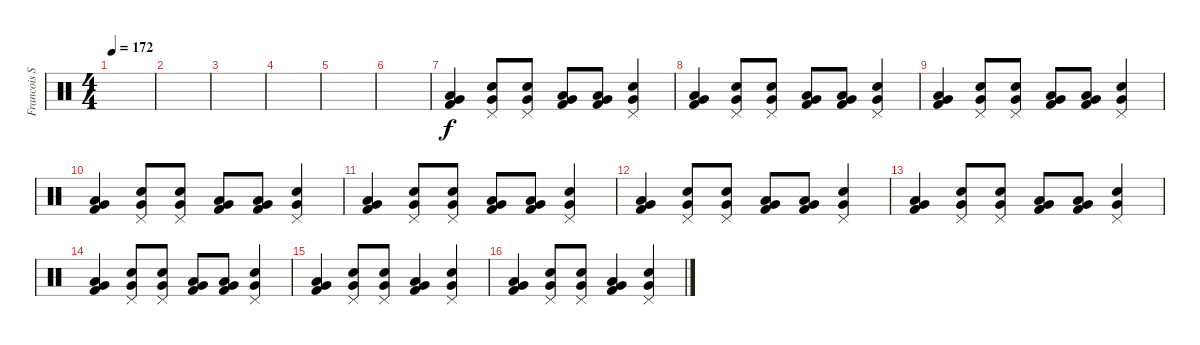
\track ("Francois Soulier" "Francois S") {instrument percussion}
\staff {score}
\articulation defaults
\ts (4 4)
\tempo 172
\clef neutral
\ks c
|
|
|
|
|
|
("Kick (hit) 2" "Very Low Tom (hit)" "Low Floor Tom (hit)").4 ("Very Low Tom (hit)" "Electric Snare (hit)" "Pedal Hi-Hat (hit)").8 ("Very Low Tom (hit)" "Electric Snare (hit)" "Pedal Hi-Hat (hit)").8 ("Kick (hit) 2" "Very Low Tom (hit)" "Low Floor Tom (hit)").8 ("Kick (hit) 2" "Very Low Tom (hit)" "Low Floor Tom (hit)").8 ("Very Low Tom (hit)" "Electric Snare (hit)" "Pedal Hi-Hat (hit)").4 |
("Kick (hit) 2" "Very Low Tom (hit)" "Low Floor Tom (hit)").4 ("Very Low Tom (hit)" "Electric Snare (hit)" "Pedal Hi-Hat (hit)").8 ("Very Low Tom (hit)" "Electric Snare (hit)" "Pedal Hi-Hat (hit)").8 ("Kick (hit) 2" "Very Low Tom (hit)" "Low Floor Tom (hit)").8 ("Kick (hit) 2" "Very Low Tom (hit)" "Low Floor Tom (hit)").8 ("Very Low Tom (hit)" "Electric Snare (hit)" "Pedal Hi-Hat (hit)").4 |
("Kick (hit) 2" "Very Low Tom (hit)" "Low Floor Tom (hit)").4 ("Very Low Tom (hit)" "Electric Snare (hit)" "Pedal Hi-Hat (hit)").8 ("Very Low Tom (hit)" "Electric Snare (hit)" "Pedal Hi-Hat (hit)").8 ("Kick (hit) 2" "Very Low Tom (hit)" "Low Floor Tom (hit)").8 ("Kick (hit) 2" "Very Low Tom (hit)" "Low Floor Tom (hit)").8 ("Very Low Tom (hit)" "Electric Snare (hit)" "Pedal Hi-Hat (hit)").4 |
("Kick (hit) 2" "Very Low Tom (hit)" "Low Floor Tom (hit)").4 ("Very Low Tom (hit)" "Electric Snare (hit)" "Pedal Hi-Hat (hit)").8 ("Very Low Tom (hit)" "Electric Snare (hit)" "Pedal Hi-Hat (hit)").8 ("Kick (hit) 2" "Very Low Tom (hit)" "Low Floor Tom (hit)").8 ("Kick (hit) 2" "Very Low Tom (hit)" "Low Floor Tom (hit)").8 ("Very Low Tom (hit)" "Electric Snare (hit)" "Pedal Hi-Hat (hit)").4 |
("Kick (hit) 2" "Very Low Tom (hit)" "Low Floor Tom (hit)").4 ("Very Low Tom (hit)" "Electric Snare (hit)" "Pedal Hi-Hat (hit)").8 ("Very Low Tom (hit)" "Electric Snare (hit)" "Pedal Hi-Hat (hit)").8 ("Kick (hit) 2" "Very Low Tom (hit)" "Low Floor Tom (hit)").8 ("Kick (hit) 2" "Very Low Tom (hit)" "Low Floor Tom (hit)").8 ("Very Low Tom (hit)" "Electric Snare (hit)" "Pedal Hi-Hat (hit)").4 |
("Kick (hit) 2" "Very Low Tom (hit)" "Low Floor Tom (hit)").4 ("Very Low Tom (hit)" "Electric Snare (hit)" "Pedal Hi-Hat (hit)").8 ("Very Low Tom (hit)" "Electric Snare (hit)" "Pedal Hi-Hat (hit)").8 ("Kick (hit) 2" "Very Low Tom (hit)" "Low Floor Tom (hit)").8 ("Kick (hit) 2" "Very Low Tom (hit)" "Low Floor Tom (hit)").8 ("Very Low Tom (hit)" "Electric Snare (hit)" "Pedal Hi-Hat (hit)").4 |
("Kick (hit) 2" "Very Low Tom (hit)" "Low Floor Tom (hit)").4 ("Very Low Tom (hit)" "Electric Snare (hit)" "Pedal Hi-Hat (hit)").8 ("Very Low Tom (hit)" "Electric Snare (hit)" "Pedal Hi-Hat (hit)").8 ("Kick (hit) 2" "Very Low Tom (hit)" "Low Floor Tom (hit)").8 ("Kick (hit) 2" "Very Low Tom (hit)" "Low Floor Tom (hit)").8 ("Very Low Tom (hit)" "Electric Snare (hit)" "Pedal Hi-Hat (hit)").4 |
("Kick (hit) 2" "Very Low Tom (hit)" "Low Floor Tom (hit)").4 ("Very Low Tom (hit)" "Electric Snare (hit)" "Pedal Hi-Hat (hit)").8 ("Very Low Tom (hit)" "Electric Snare (hit)" "Pedal Hi-Hat (hit)").8 ("Kick (hit) 2" "Very Low Tom (hit)" "Low Floor Tom (hit)").8 ("Kick (hit) 2" "Very Low Tom (hit)" "Low Floor Tom (hit)").8 ("Very Low Tom (hit)" "Electric Snare (hit)" "Pedal Hi-Hat (hit)").4 |
("Kick (hit) 2" "Very Low Tom (hit)" "Low Floor Tom (hit)").4 ("Very Low Tom (hit)" "Electric Snare (hit)" "Pedal Hi-Hat (hit)").8 ("Very Low Tom (hit)" "Electric Snare (hit)" "Pedal Hi-Hat (hit)").8 ("Kick (hit) 2" "Very Low Tom (hit)" "Low Floor Tom (hit)").4 ("Very Low Tom (hit)" "Electric Snare (hit)" "Pedal Hi-Hat (hit)").4 |
("Kick (hit) 2" "Very Low Tom (hit)" "Low Floor Tom (hit)").4 ("Very Low Tom (hit)" "Electric Snare (hit)" "Pedal Hi-Hat (hit)").8 ("Very Low Tom (hit)" "Electric Snare (hit)" "Pedal Hi-Hat (hit)").8 ("Kick (hit) 2" "Very Low Tom (hit)" "Low Floor Tom (hit)").4 ("Very Low Tom (hit)" "Electric Snare (hit)" "Pedal Hi-Hat (hit)").4
